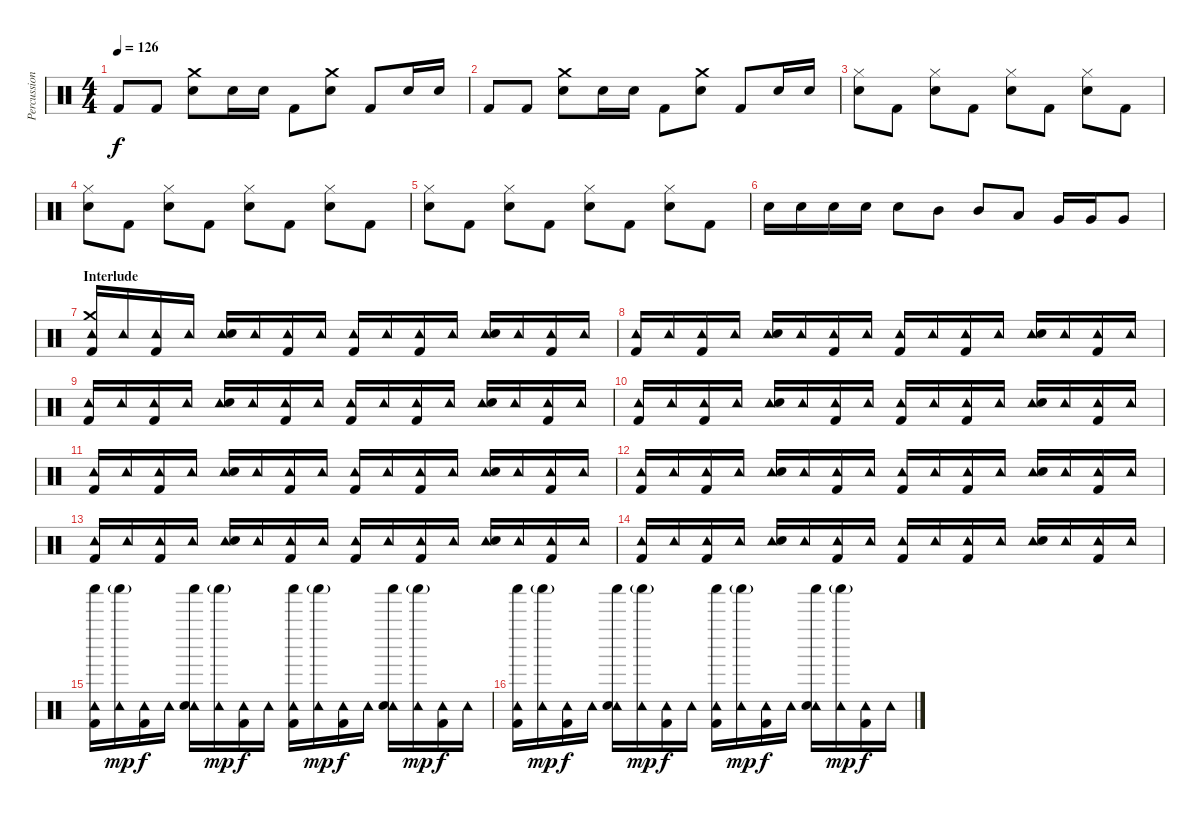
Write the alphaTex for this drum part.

\track ("Percussion" "Percussion") {instrument percussion}
\staff {score}
\articulation defaults
\ts (4 4)
\tempo 126
\clef neutral
\ks c "Kick (hit) 2".8{dy f} "Kick (hit) 2".8
("Crash medium (hit)" "Electric Snare (hit)").8 "Electric Snare (hit)".16 "Electric Snare (hit)".16 "Kick (hit) 2".8 ("Crash medium (hit)" "Electric Snare (hit)").8 "Kick (hit) 2".8 "Electric Snare (hit)".16 "Electric Snare (hit)".16 |
"Kick (hit) 2".8 "Kick (hit) 2".8 ("Crash medium (hit)" "Electric Snare (hit)").8 "Electric Snare (hit)".16 "Electric Snare (hit)".16 "Kick (hit) 2".8 ("Crash medium (hit)" "Electric Snare (hit)").8 "Kick (hit) 2".8 "Electric Snare (hit)".16 "Electric Snare (hit)".16 |
("Hi-Hat (closed)" "Electric Snare (hit)").8 "Kick (hit) 2".8 ("Hi-Hat (closed)" "Electric Snare (hit)").8 "Kick (hit) 2".8 ("Hi-Hat (closed)" "Electric Snare (hit)").8 "Kick (hit) 2".8 ("Hi-Hat (closed)" "Electric Snare (hit)").8 "Kick (hit) 2".8 |
("Hi-Hat (closed)" "Electric Snare (hit)").8 "Kick (hit) 2".8 ("Hi-Hat (closed)" "Electric Snare (hit)").8 "Kick (hit) 2".8 ("Hi-Hat (closed)" "Electric Snare (hit)").8 "Kick (hit) 2".8 ("Hi-Hat (closed)" "Electric Snare (hit)").8 "Kick (hit) 2".8 |
("Hi-Hat (closed)" "Electric Snare (hit)").8 "Kick (hit) 2".8 ("Hi-Hat (closed)" "Electric Snare (hit)").8 "Kick (hit) 2".8 ("Hi-Hat (closed)" "Electric Snare (hit)").8 "Kick (hit) 2".8 ("Hi-Hat (closed)" "Electric Snare (hit)").8 "Kick (hit) 2".8 |
"Electric Snare (hit)".16 "Electric Snare (hit)".16 "Electric Snare (hit)".16 "Electric Snare (hit)".16 "Electric Snare (hit)".8 "Mid Tom (hit)".8 "Mid Tom (hit)".8 "Low Tom (hit)".8 "Very Low Tom (hit)".16 "Very Low Tom (hit)".16 "Very Low Tom (hit)".8 |
\section ("" "Interlude")
("Crash medium (hit)" "Tambourine (hit)" "Kick (hit) 2").16 "Tambourine (hit)".16 ("Tambourine (hit)" "Kick (hit) 2").16 "Tambourine (hit)".16 ("Tambourine (hit)" "Electric Snare (hit)").16 "Tambourine (hit)".16 ("Tambourine (hit)" "Kick (hit) 2").16 "Tambourine (hit)".16 ("Tambourine (hit)" "Kick (hit) 2").16 "Tambourine (hit)".16 ("Tambourine (hit)" "Kick (hit) 2").16 "Tambourine (hit)".16 ("Tambourine (hit)" "Electric Snare (hit)").16 "Tambourine (hit)".16 ("Tambourine (hit)" "Kick (hit) 2").16 "Tambourine (hit)".16 |
("Tambourine (hit)" "Kick (hit) 2").16 "Tambourine (hit)".16 ("Tambourine (hit)" "Kick (hit) 2").16 "Tambourine (hit)".16 ("Tambourine (hit)" "Electric Snare (hit)").16 "Tambourine (hit)".16 ("Tambourine (hit)" "Kick (hit) 2").16 "Tambourine (hit)".16 ("Tambourine (hit)" "Kick (hit) 2").16 "Tambourine (hit)".16 ("Tambourine (hit)" "Kick (hit) 2").16 "Tambourine (hit)".16 ("Tambourine (hit)" "Electric Snare (hit)").16 "Tambourine (hit)".16 ("Tambourine (hit)" "Kick (hit) 2").16 "Tambourine (hit)".16 |
("Tambourine (hit)" "Kick (hit) 2").16 "Tambourine (hit)".16 ("Tambourine (hit)" "Kick (hit) 2").16 "Tambourine (hit)".16 ("Tambourine (hit)" "Electric Snare (hit)").16 "Tambourine (hit)".16 ("Tambourine (hit)" "Kick (hit) 2").16 "Tambourine (hit)".16 ("Tambourine (hit)" "Kick (hit) 2").16 "Tambourine (hit)".16 ("Tambourine (hit)" "Kick (hit) 2").16 "Tambourine (hit)".16 ("Tambourine (hit)" "Electric Snare (hit)").16 "Tambourine (hit)".16 ("Tambourine (hit)" "Kick (hit) 2").16 "Tambourine (hit)".16 |
("Tambourine (hit)" "Kick (hit) 2").16 "Tambourine (hit)".16 ("Tambourine (hit)" "Kick (hit) 2").16 "Tambourine (hit)".16 ("Tambourine (hit)" "Electric Snare (hit)").16 "Tambourine (hit)".16 ("Tambourine (hit)" "Kick (hit) 2").16 "Tambourine (hit)".16 ("Tambourine (hit)" "Kick (hit) 2").16 "Tambourine (hit)".16 ("Tambourine (hit)" "Kick (hit) 2").16 "Tambourine (hit)".16 ("Tambourine (hit)" "Electric Snare (hit)").16 "Tambourine (hit)".16 ("Tambourine (hit)" "Kick (hit) 2").16 "Tambourine (hit)".16 |
("Tambourine (hit)" "Kick (hit) 2").16 "Tambourine (hit)".16 ("Tambourine (hit)" "Kick (hit) 2").16 "Tambourine (hit)".16 ("Tambourine (hit)" "Electric Snare (hit)").16 "Tambourine (hit)".16 ("Tambourine (hit)" "Kick (hit) 2").16 "Tambourine (hit)".16 ("Tambourine (hit)" "Kick (hit) 2").16 "Tambourine (hit)".16 ("Tambourine (hit)" "Kick (hit) 2").16 "Tambourine (hit)".16 ("Tambourine (hit)" "Electric Snare (hit)").16 "Tambourine (hit)".16 ("Tambourine (hit)" "Kick (hit) 2").16 "Tambourine (hit)".16 |
("Tambourine (hit)" "Kick (hit) 2").16 "Tambourine (hit)".16 ("Tambourine (hit)" "Kick (hit) 2").16 "Tambourine (hit)".16 ("Tambourine (hit)" "Electric Snare (hit)").16 "Tambourine (hit)".16 ("Tambourine (hit)" "Kick (hit) 2").16 "Tambourine (hit)".16 ("Tambourine (hit)" "Kick (hit) 2").16 "Tambourine (hit)".16 ("Tambourine (hit)" "Kick (hit) 2").16 "Tambourine (hit)".16 ("Tambourine (hit)" "Electric Snare (hit)").16 "Tambourine (hit)".16 ("Tambourine (hit)" "Kick (hit) 2").16 "Tambourine (hit)".16 |
("Tambourine (hit)" "Kick (hit) 2").16 "Tambourine (hit)".16 ("Tambourine (hit)" "Kick (hit) 2").16 "Tambourine (hit)".16 ("Tambourine (hit)" "Electric Snare (hit)").16 "Tambourine (hit)".16 ("Tambourine (hit)" "Kick (hit) 2").16 "Tambourine (hit)".16 ("Tambourine (hit)" "Kick (hit) 2").16 "Tambourine (hit)".16 ("Tambourine (hit)" "Kick (hit) 2").16 "Tambourine (hit)".16 ("Tambourine (hit)" "Electric Snare (hit)").16 "Tambourine (hit)".16 ("Tambourine (hit)" "Kick (hit) 2").16 "Tambourine (hit)".16 |
("Tambourine (hit)" "Kick (hit) 2").16 "Tambourine (hit)".16 ("Tambourine (hit)" "Kick (hit) 2").16 "Tambourine (hit)".16 ("Tambourine (hit)" "Electric Snare (hit)").16 "Tambourine (hit)".16 ("Tambourine (hit)" "Kick (hit) 2").16 "Tambourine (hit)".16 ("Tambourine (hit)" "Kick (hit) 2").16 "Tambourine (hit)".16 ("Tambourine (hit)" "Kick (hit) 2").16 "Tambourine (hit)".16 ("Tambourine (hit)" "Electric Snare (hit)").16 "Tambourine (hit)".16 ("Tambourine (hit)" "Kick (hit) 2").16 "Tambourine (hit)".16 |
("Shaker (hit)" "Tambourine (hit)" "Kick (hit) 2").16 ("Shaker (hit)"{g} "Tambourine (hit)").16{dy mp} ("Tambourine (hit)" "Kick (hit) 2").16{dy f} "Tambourine (hit)".16 ("Shaker (hit)" "Tambourine (hit)" "Electric Snare (hit)").16 ("Shaker (hit)"{g} "Tambourine (hit)").16{dy mp} ("Tambourine (hit)" "Kick (hit) 2").16{dy f} "Tambourine (hit)".16 ("Shaker (hit)" "Tambourine (hit)" "Kick (hit) 2").16 ("Shaker (hit)"{g} "Tambourine (hit)").16{dy mp} ("Tambourine (hit)" "Kick (hit) 2").16{dy f} "Tambourine (hit)".16 ("Shaker (hit)" "Tambourine (hit)" "Electric Snare (hit)").16 ("Shaker (hit)"{g} "Tambourine (hit)").16{dy mp} ("Tambourine (hit)" "Kick (hit) 2").16{dy f} "Tambourine (hit)".16 |
("Shaker (hit)" "Tambourine (hit)" "Kick (hit) 2").16 ("Shaker (hit)"{g} "Tambourine (hit)").16{dy mp} ("Tambourine (hit)" "Kick (hit) 2").16{dy f} "Tambourine (hit)".16 ("Shaker (hit)" "Tambourine (hit)" "Electric Snare (hit)").16 ("Shaker (hit)"{g} "Tambourine (hit)").16{dy mp} ("Tambourine (hit)" "Kick (hit) 2").16{dy f} "Tambourine (hit)".16 ("Shaker (hit)" "Tambourine (hit)" "Kick (hit) 2").16 ("Shaker (hit)"{g} "Tambourine (hit)").16{dy mp} ("Tambourine (hit)" "Kick (hit) 2").16{dy f} "Tambourine (hit)".16 ("Shaker (hit)" "Tambourine (hit)" "Electric Snare (hit)").16 ("Shaker (hit)"{g} "Tambourine (hit)").16{dy mp} ("Tambourine (hit)" "Kick (hit) 2").16{dy f} "Tambourine (hit)".16
